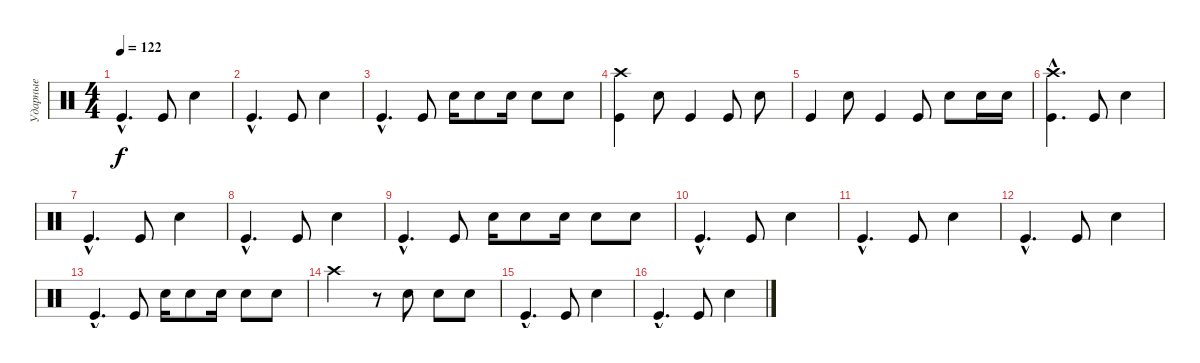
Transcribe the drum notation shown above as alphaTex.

\track ("Ударные" "Ударные") {instrument percussion}
\staff {score}
\articulation defaults
\ts (4 4)
\tempo 122
\clef neutral
\ks c "Kick (hit)"{hac}.4{d dy f} "Kick (hit)".8 "Electric Snare (hit)".4
|
"Kick (hit)"{hac}.4{d} "Kick (hit)".8 "Electric Snare (hit)".4 |
"Kick (hit)"{hac}.4{d} "Kick (hit)".8 "Electric Snare (hit)".16 "Electric Snare (hit)".8 "Electric Snare (hit)".16 "Electric Snare (hit)".8 "Electric Snare (hit)".8 |
("Kick (hit)" "Crash high (hit)").4 "Electric Snare (hit)".8 "Kick (hit)".4 "Kick (hit)".8 "Electric Snare (hit)".8 |
"Kick (hit)".4 "Electric Snare (hit)".8 "Kick (hit)".4 "Kick (hit)".8 "Electric Snare (hit)".8 "Electric Snare (hit)".16 "Electric Snare (hit)".16 |
("Kick (hit)"{hac} "Crash high (hit)"{hac}).4{d} "Kick (hit)".8 "Electric Snare (hit)".4 |
"Kick (hit)"{hac}.4{d} "Kick (hit)".8 "Electric Snare (hit)".4 |
"Kick (hit)"{hac}.4{d} "Kick (hit)".8 "Electric Snare (hit)".4 |
"Kick (hit)"{hac}.4{d} "Kick (hit)".8 "Electric Snare (hit)".16 "Electric Snare (hit)".8 "Electric Snare (hit)".16 "Electric Snare (hit)".8 "Electric Snare (hit)".8 |
"Kick (hit)"{hac}.4{d} "Kick (hit)".8 "Electric Snare (hit)".4 |
"Kick (hit)"{hac}.4{d} "Kick (hit)".8 "Electric Snare (hit)".4 |
"Kick (hit)"{hac}.4{d} "Kick (hit)".8 "Electric Snare (hit)".4 |
"Kick (hit)"{hac}.4{d} "Kick (hit)".8 "Electric Snare (hit)".16 "Electric Snare (hit)".8 "Electric Snare (hit)".16 "Electric Snare (hit)".8 "Electric Snare (hit)".8 |
"Crash high (hit)".2 r.8 "Electric Snare (hit)".8 "Electric Snare (hit)".8 "Electric Snare (hit)".8 |
"Kick (hit)"{hac}.4{d} "Kick (hit)".8 "Electric Snare (hit)".4 |
"Kick (hit)"{hac}.4{d} "Kick (hit)".8 "Electric Snare (hit)".4
